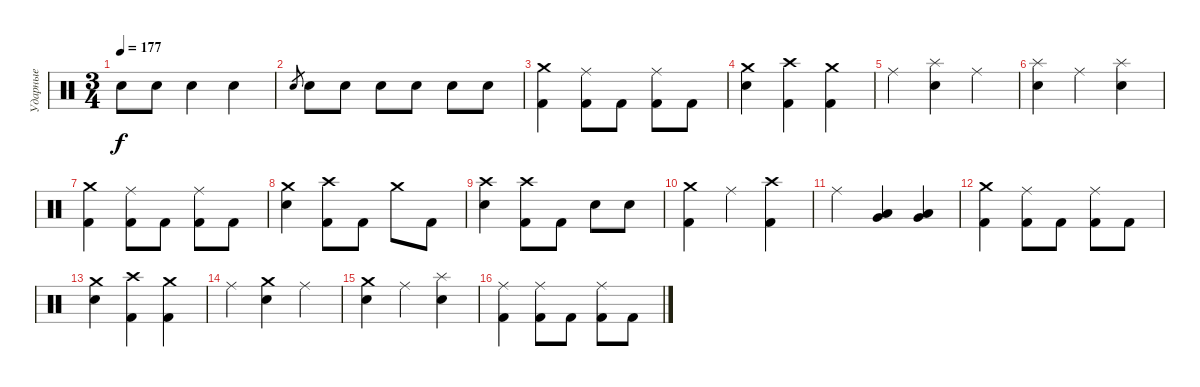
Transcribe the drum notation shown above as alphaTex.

\track ("Ударные" "Ударные") {instrument percussion}
\staff {score}
\articulation defaults
\ts (3 4)
\tempo 177
\clef neutral
\ks c "Snare (hit) 2".8{dy f} "Snare (hit) 2".8 "Snare (hit) 2".4 "Snare (hit) 2".4
|
"Snare (hit) 2".8{gr} "Snare (hit) 2".8 "Snare (hit) 2".8 "Snare (hit) 2".8 "Snare (hit) 2".8 "Snare (hit) 2".8 "Snare (hit) 2".8 |
("Crash medium (hit)" "Kick (hit) 2").4 ("Ride (middle)" "Kick (hit) 2").8 "Kick (hit) 2".8 ("Ride (middle)" "Kick (hit) 2").8 "Kick (hit) 2".8 |
("Crash medium (hit)" "Snare (hit) 2").4 ("Crash high (hit)" "Kick (hit) 2").4 ("Crash medium (hit)" "Kick (hit) 2").4 |
"Ride (middle)".4 ("Splash (hit)" "Snare (hit) 2").4 "Ride (middle)".4 |
("Splash (hit)" "Snare (hit) 2").4 "Ride (middle)".4 ("Splash (hit)" "Snare (hit) 2").4 |
("Crash medium (hit)" "Kick (hit) 2").4 ("Ride (middle)" "Kick (hit) 2").8 "Kick (hit) 2".8 ("Ride (middle)" "Kick (hit) 2").8 "Kick (hit) 2".8 |
("Crash medium (hit)" "Snare (hit) 2").4 ("Crash high (hit)" "Kick (hit) 2").8 "Kick (hit) 2".8 "Crash medium (hit)".8 "Kick (hit) 2".8 |
("Crash high (hit)" "Snare (hit) 2").4 ("Crash high (hit)" "Kick (hit) 2").8 "Kick (hit) 2".8 "Snare (hit) 2".8 "Snare (hit) 2".8 |
("Crash medium (hit)" "Kick (hit) 2").4 "Ride (middle)".4 ("Crash high (hit)" "Kick (hit) 2").4 |
"Ride (middle)".4 ("Low Tom (hit)" "Very Low Tom (hit)").4 ("Low Tom (hit)" "Very Low Tom (hit)").4 |
("Crash medium (hit)" "Kick (hit) 2").4 ("Ride (middle)" "Kick (hit) 2").8 "Kick (hit) 2".8 ("Ride (middle)" "Kick (hit) 2").8 "Kick (hit) 2".8 |
("Crash medium (hit)" "Snare (hit) 2").4 ("Crash high (hit)" "Kick (hit) 2").4 ("Crash medium (hit)" "Kick (hit) 2").4 |
"Ride (middle)".4 ("Crash medium (hit)" "Snare (hit) 2").4 "Ride (middle)".4 |
("Crash medium (hit)" "Snare (hit) 2").4 "Ride (middle)".4 ("Splash (hit)" "Snare (hit) 2").4 |
("Ride (middle)" "Kick (hit) 2").4 ("Ride (middle)" "Kick (hit) 2").8 "Kick (hit) 2".8 ("Ride (middle)" "Kick (hit) 2").8 "Kick (hit) 2".8
